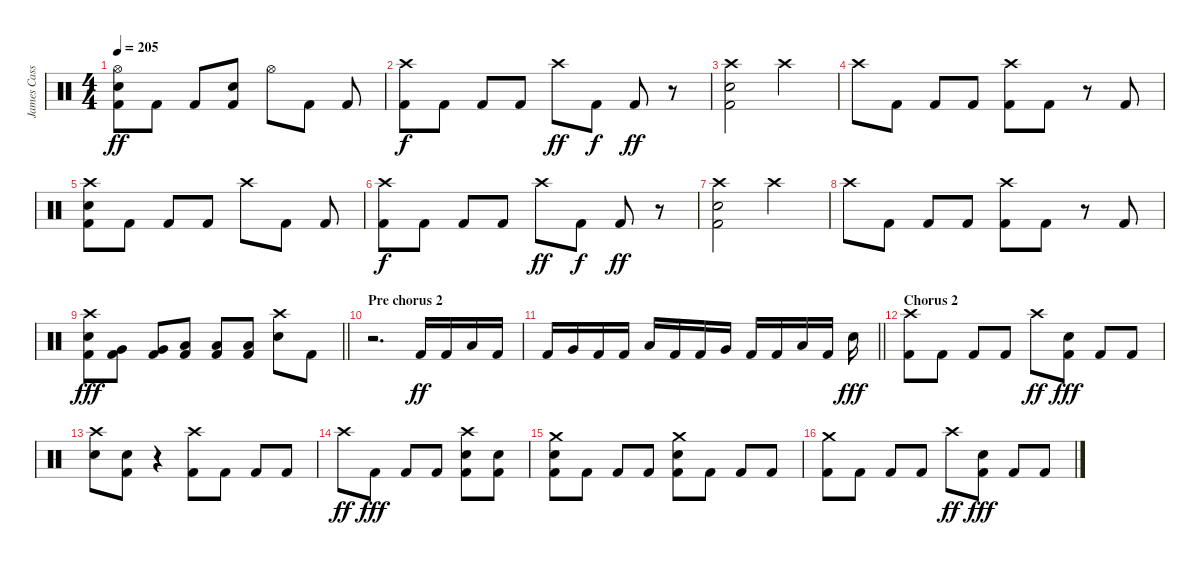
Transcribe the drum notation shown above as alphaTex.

\track ("James Cassels" "James Cass") {instrument percussion}
\staff {score}
\articulation defaults
\ts (4 4)
\tempo 205
\clef neutral
\ks c
("Hi-Hat (open)" "Electric Snare (hit)" "Kick (hit) 2").8{dy ff} "Kick (hit) 2".8 "Kick (hit) 2".8 ("Electric Snare (hit)" "Kick (hit) 2").8 "Hi-Hat (open)".8 "Kick (hit) 2".8 "Kick (hit) 2".8 |
("Crash high (hit)" "Kick (hit) 2").8{dy f} "Kick (hit) 2".8 "Kick (hit) 2".8 "Kick (hit) 2".8 "Crash high (hit)".8{dy ff} "Kick (hit) 2".8{dy f} "Kick (hit) 2".8{dy ff} r.8 |
("Crash high (hit)" "Electric Snare (hit)" "Kick (hit) 2").2 "Crash high (hit)".2 |
"Crash high (hit)".8 "Kick (hit) 2".8 "Kick (hit) 2".8 "Kick (hit) 2".8 ("Crash high (hit)" "Kick (hit) 2").8 "Kick (hit) 2".8 r.8 "Kick (hit) 2".8 |
("Crash high (hit)" "Electric Snare (hit)" "Kick (hit) 2").8 "Kick (hit) 2".8 "Kick (hit) 2".8 "Kick (hit) 2".8 "Crash high (hit)".8 "Kick (hit) 2".8 "Kick (hit) 2".8 |
("Crash high (hit)" "Kick (hit) 2").8{dy f} "Kick (hit) 2".8 "Kick (hit) 2".8 "Kick (hit) 2".8 "Crash high (hit)".8{dy ff} "Kick (hit) 2".8{dy f} "Kick (hit) 2".8{dy ff} r.8 |
("Crash high (hit)" "Electric Snare (hit)" "Kick (hit) 2").2 "Crash high (hit)".2 |
"Crash high (hit)".8 "Kick (hit) 2".8 "Kick (hit) 2".8 "Kick (hit) 2".8 ("Crash high (hit)" "Kick (hit) 2").8 "Kick (hit) 2".8 r.8 "Kick (hit) 2".8 |
\barLineRight lightlight
("Crash high (hit)" "Electric Snare (hit)" "Kick (hit) 2").8{dy fff} ("Very Low Tom (hit)" "Kick (hit) 2").8 ("Very Low Tom (hit)" "Kick (hit) 2").8 ("Low Floor Tom (hit)" "Kick (hit) 2").8 ("Low Floor Tom (hit)" "Kick (hit) 2").8 ("Low Floor Tom (hit)" "Kick (hit) 2").8 ("Crash high (hit)" "Electric Snare (hit)").8 "Kick (hit) 2".8 |
\section ("" "Pre chorus 2")
r.2{d} "Kick (hit) 2".16{dy ff} "Kick (hit) 2".16 "Low Floor Tom (hit)".16 "Kick (hit) 2".16 |
\barLineRight lightlight "Kick (hit) 2".16 "Very Low Tom (hit)".16 "Kick (hit) 2".16 "Kick (hit) 2".16 "Low Floor Tom (hit)".16 "Kick (hit) 2".16 "Kick (hit) 2".16 "Very Low Tom (hit)".16 "Kick (hit) 2".16 "Kick (hit) 2".16 "Low Floor Tom (hit)".16 "Kick (hit) 2".16 "Snare (hit) 2".16{dy fff}
|
\section ("" "Chorus 2")
("Crash high (hit)" "Kick (hit) 2").8 "Kick (hit) 2".8 "Kick (hit) 2".8 "Kick (hit) 2".8 "Crash high (hit)".8{dy ff} ("Electric Snare (hit)" "Kick (hit) 2").8{dy fff} "Kick (hit) 2".8 "Kick (hit) 2".8 |
("Crash high (hit)" "Electric Snare (hit)").8 ("Electric Snare (hit)" "Kick (hit) 2").8 r.4 ("Crash high (hit)" "Kick (hit) 2").8 "Kick (hit) 2".8 "Kick (hit) 2".8 "Kick (hit) 2".8 |
"Crash high (hit)".8{dy ff} "Kick (hit) 2".8{dy fff} "Kick (hit) 2".8 "Kick (hit) 2".8 ("Crash high (hit)" "Electric Snare (hit)" "Kick (hit) 2").8 ("Electric Snare (hit)" "Kick (hit) 2").8 |
("Crash medium (hit)" "Electric Snare (hit)" "Kick (hit) 2").8 "Kick (hit) 2".8 "Kick (hit) 2".8 "Kick (hit) 2".8 ("Crash medium (hit)" "Electric Snare (hit)" "Kick (hit) 2").8 "Kick (hit) 2".8 "Kick (hit) 2".8 "Kick (hit) 2".8 |
("Crash medium (hit)" "Kick (hit) 2").8 "Kick (hit) 2".8 "Kick (hit) 2".8 "Kick (hit) 2".8 "Crash high (hit)".8{dy ff} ("Electric Snare (hit)" "Kick (hit) 2").8{dy fff} "Kick (hit) 2".8 "Kick (hit) 2".8
